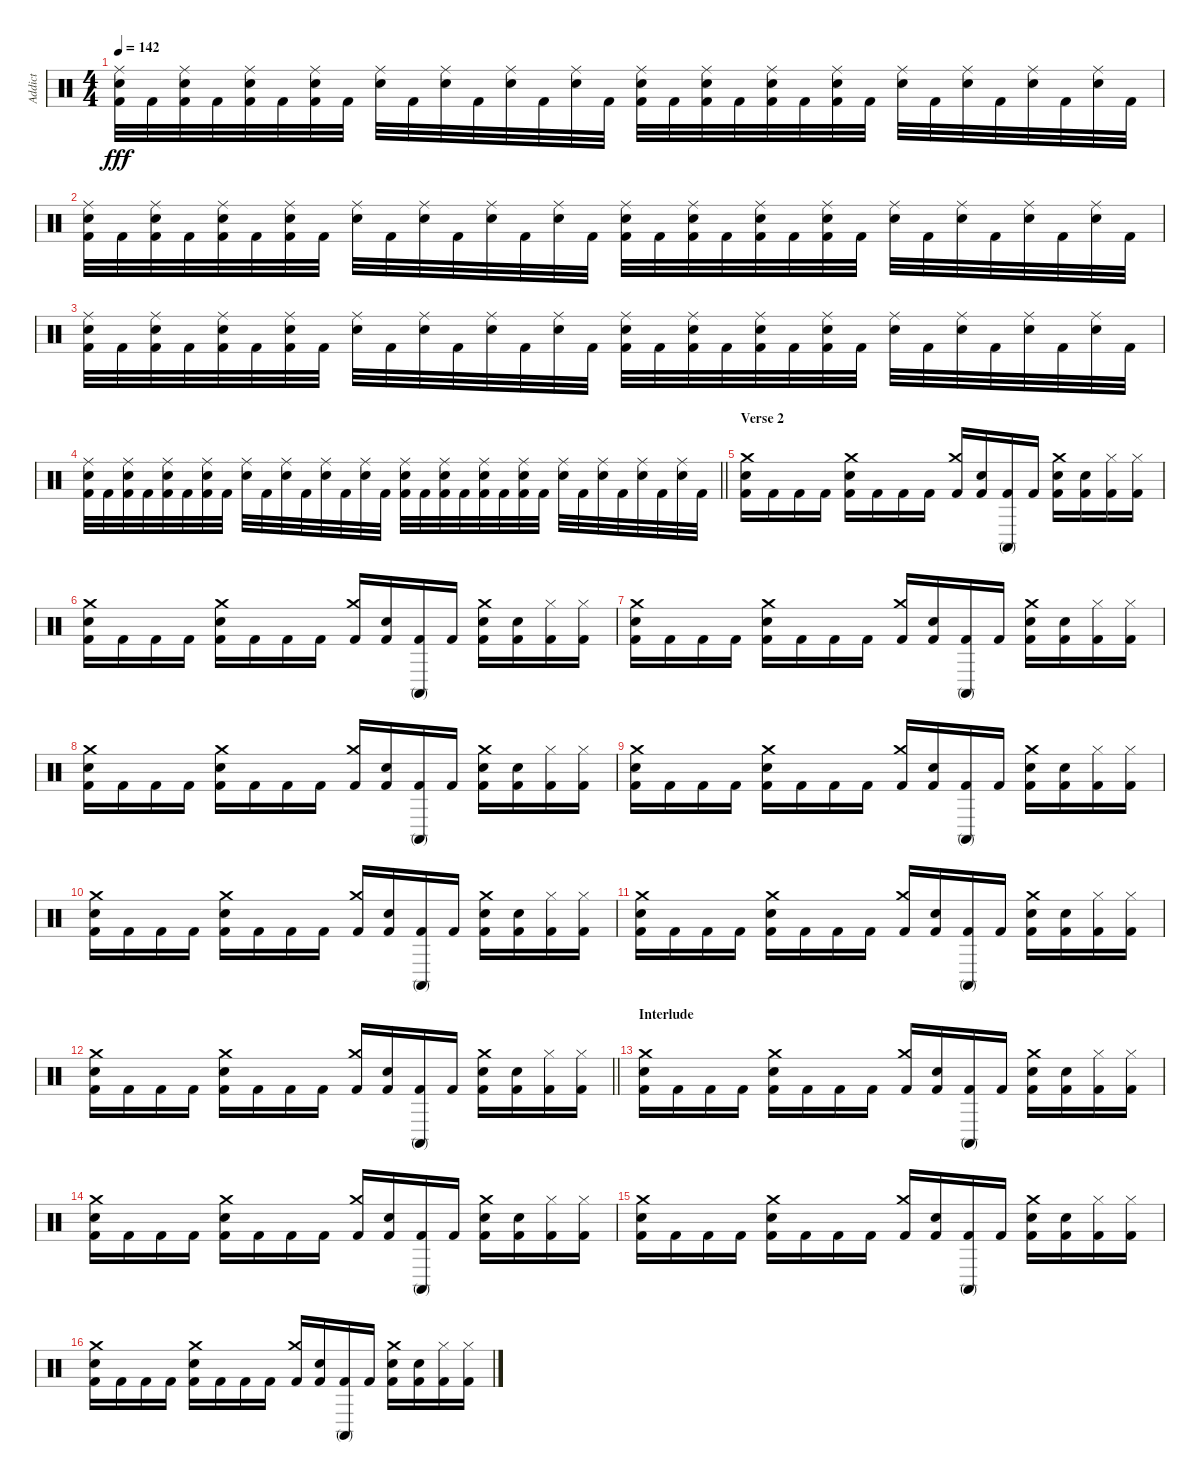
\track ("Addict" "Addict") {instrument percussion}
\staff {score}
\articulation defaults
\ts (4 4)
\tempo 142
\clef neutral
\ks c
("Kick (hit) 2" "Snare (hit) 2" "Ride (middle)").32{dy fff} "Kick (hit) 2".32 ("Kick (hit) 2" "Snare (hit) 2" "Ride (middle)").32 "Kick (hit) 2".32 ("Kick (hit) 2" "Snare (hit) 2" "Ride (middle)").32 "Kick (hit) 2".32 ("Kick (hit) 2" "Snare (hit) 2" "Ride (middle)").32 "Kick (hit) 2".32 ("Snare (hit) 2" "Ride (middle)").32 "Kick (hit) 2".32 ("Snare (hit) 2" "Ride (middle)").32 "Kick (hit) 2".32 ("Snare (hit) 2" "Ride (middle)").32 "Kick (hit) 2".32 ("Snare (hit) 2" "Ride (middle)").32 "Kick (hit) 2".32 ("Kick (hit) 2" "Snare (hit) 2" "Ride (middle)").32 "Kick (hit) 2".32 ("Kick (hit) 2" "Snare (hit) 2" "Ride (middle)").32 "Kick (hit) 2".32 ("Kick (hit) 2" "Snare (hit) 2" "Ride (middle)").32 "Kick (hit) 2".32 ("Kick (hit) 2" "Snare (hit) 2" "Ride (middle)").32 "Kick (hit) 2".32 ("Snare (hit) 2" "Ride (middle)").32 "Kick (hit) 2".32 ("Snare (hit) 2" "Ride (middle)").32 "Kick (hit) 2".32 ("Snare (hit) 2" "Ride (middle)").32 "Kick (hit) 2".32 ("Snare (hit) 2" "Ride (middle)").32 "Kick (hit) 2".32 |
("Kick (hit) 2" "Snare (hit) 2" "Ride (middle)").32 "Kick (hit) 2".32 ("Kick (hit) 2" "Snare (hit) 2" "Ride (middle)").32 "Kick (hit) 2".32 ("Kick (hit) 2" "Snare (hit) 2" "Ride (middle)").32 "Kick (hit) 2".32 ("Kick (hit) 2" "Snare (hit) 2" "Ride (middle)").32 "Kick (hit) 2".32 ("Snare (hit) 2" "Ride (middle)").32 "Kick (hit) 2".32 ("Snare (hit) 2" "Ride (middle)").32 "Kick (hit) 2".32 ("Snare (hit) 2" "Ride (middle)").32 "Kick (hit) 2".32 ("Snare (hit) 2" "Ride (middle)").32 "Kick (hit) 2".32 ("Kick (hit) 2" "Snare (hit) 2" "Ride (middle)").32 "Kick (hit) 2".32 ("Kick (hit) 2" "Snare (hit) 2" "Ride (middle)").32 "Kick (hit) 2".32 ("Kick (hit) 2" "Snare (hit) 2" "Ride (middle)").32 "Kick (hit) 2".32 ("Kick (hit) 2" "Snare (hit) 2" "Ride (middle)").32 "Kick (hit) 2".32 ("Snare (hit) 2" "Ride (middle)").32 "Kick (hit) 2".32 ("Snare (hit) 2" "Ride (middle)").32 "Kick (hit) 2".32 ("Snare (hit) 2" "Ride (middle)").32 "Kick (hit) 2".32 ("Snare (hit) 2" "Ride (middle)").32 "Kick (hit) 2".32 |
("Kick (hit) 2" "Snare (hit) 2" "Ride (middle)").32 "Kick (hit) 2".32 ("Kick (hit) 2" "Snare (hit) 2" "Ride (middle)").32 "Kick (hit) 2".32 ("Kick (hit) 2" "Snare (hit) 2" "Ride (middle)").32 "Kick (hit) 2".32 ("Kick (hit) 2" "Snare (hit) 2" "Ride (middle)").32 "Kick (hit) 2".32 ("Snare (hit) 2" "Ride (middle)").32 "Kick (hit) 2".32 ("Snare (hit) 2" "Ride (middle)").32 "Kick (hit) 2".32 ("Snare (hit) 2" "Ride (middle)").32 "Kick (hit) 2".32 ("Snare (hit) 2" "Ride (middle)").32 "Kick (hit) 2".32 ("Kick (hit) 2" "Snare (hit) 2" "Ride (middle)").32 "Kick (hit) 2".32 ("Kick (hit) 2" "Snare (hit) 2" "Ride (middle)").32 "Kick (hit) 2".32 ("Kick (hit) 2" "Snare (hit) 2" "Ride (middle)").32 "Kick (hit) 2".32 ("Kick (hit) 2" "Snare (hit) 2" "Ride (middle)").32 "Kick (hit) 2".32 ("Snare (hit) 2" "Ride (middle)").32 "Kick (hit) 2".32 ("Snare (hit) 2" "Ride (middle)").32 "Kick (hit) 2".32 ("Snare (hit) 2" "Ride (middle)").32 "Kick (hit) 2".32 ("Snare (hit) 2" "Ride (middle)").32 "Kick (hit) 2".32 |
\barLineRight lightlight
("Kick (hit) 2" "Snare (hit) 2" "Ride (middle)").32 "Kick (hit) 2".32 ("Kick (hit) 2" "Snare (hit) 2" "Ride (middle)").32 "Kick (hit) 2".32 ("Kick (hit) 2" "Snare (hit) 2" "Ride (middle)").32 "Kick (hit) 2".32 ("Kick (hit) 2" "Snare (hit) 2" "Ride (middle)").32 "Kick (hit) 2".32 ("Snare (hit) 2" "Ride (middle)").32 "Kick (hit) 2".32 ("Snare (hit) 2" "Ride (middle)").32 "Kick (hit) 2".32 ("Snare (hit) 2" "Ride (middle)").32 "Kick (hit) 2".32 ("Snare (hit) 2" "Ride (middle)").32 "Kick (hit) 2".32 ("Kick (hit) 2" "Snare (hit) 2" "Ride (middle)").32 "Kick (hit) 2".32 ("Kick (hit) 2" "Snare (hit) 2" "Ride (middle)").32 "Kick (hit) 2".32 ("Kick (hit) 2" "Snare (hit) 2" "Ride (middle)").32 "Kick (hit) 2".32 ("Kick (hit) 2" "Snare (hit) 2" "Ride (middle)").32 "Kick (hit) 2".32 ("Snare (hit) 2" "Ride (middle)").32 "Kick (hit) 2".32 ("Snare (hit) 2" "Ride (middle)").32 "Kick (hit) 2".32 ("Snare (hit) 2" "Ride (middle)").32 "Kick (hit) 2".32 ("Snare (hit) 2" "Ride (middle)").32 "Kick (hit) 2".32 |
\section ("" "Verse 2")
("Kick (hit) 2" "Snare (hit) 2" "Crash medium (hit)").16 "Kick (hit) 2".16 "Kick (hit) 2".16 "Kick (hit) 2".16 ("Kick (hit) 2" "Snare (hit) 2" "Crash medium (hit)").16 "Kick (hit) 2".16 "Kick (hit) 2".16 "Kick (hit) 2".16 ("Kick (hit) 2" "Crash medium (hit)").16 ("Kick (hit) 2" "Snare (hit) 2").16 ("Kick (hit) 2" "Conga high (mute)").16 "Kick (hit) 2".16 ("Kick (hit) 2" "Snare (hit) 2" "Crash medium (hit)").16 ("Kick (hit) 2" "Snare (hit) 2").16 ("Kick (hit) 2" "Hi-Hat (closed)").16 ("Kick (hit) 2" "Hi-Hat (closed)").16 |
("Kick (hit) 2" "Snare (hit) 2" "Crash medium (hit)").16 "Kick (hit) 2".16 "Kick (hit) 2".16 "Kick (hit) 2".16 ("Kick (hit) 2" "Snare (hit) 2" "Crash medium (hit)").16 "Kick (hit) 2".16 "Kick (hit) 2".16 "Kick (hit) 2".16 ("Kick (hit) 2" "Crash medium (hit)").16 ("Kick (hit) 2" "Snare (hit) 2").16 ("Kick (hit) 2" "Conga high (mute)").16 "Kick (hit) 2".16 ("Kick (hit) 2" "Snare (hit) 2" "Crash medium (hit)").16 ("Kick (hit) 2" "Snare (hit) 2").16 ("Kick (hit) 2" "Hi-Hat (closed)").16 ("Kick (hit) 2" "Hi-Hat (closed)").16 |
("Kick (hit) 2" "Snare (hit) 2" "Crash medium (hit)").16 "Kick (hit) 2".16 "Kick (hit) 2".16 "Kick (hit) 2".16 ("Kick (hit) 2" "Snare (hit) 2" "Crash medium (hit)").16 "Kick (hit) 2".16 "Kick (hit) 2".16 "Kick (hit) 2".16 ("Kick (hit) 2" "Crash medium (hit)").16 ("Kick (hit) 2" "Snare (hit) 2").16 ("Kick (hit) 2" "Conga high (mute)").16 "Kick (hit) 2".16 ("Kick (hit) 2" "Snare (hit) 2" "Crash medium (hit)").16 ("Kick (hit) 2" "Snare (hit) 2").16 ("Kick (hit) 2" "Hi-Hat (closed)").16 ("Kick (hit) 2" "Hi-Hat (closed)").16 |
("Kick (hit) 2" "Snare (hit) 2" "Crash medium (hit)").16 "Kick (hit) 2".16 "Kick (hit) 2".16 "Kick (hit) 2".16 ("Kick (hit) 2" "Snare (hit) 2" "Crash medium (hit)").16 "Kick (hit) 2".16 "Kick (hit) 2".16 "Kick (hit) 2".16 ("Kick (hit) 2" "Crash medium (hit)").16 ("Kick (hit) 2" "Snare (hit) 2").16 ("Kick (hit) 2" "Conga high (mute)").16 "Kick (hit) 2".16 ("Kick (hit) 2" "Snare (hit) 2" "Crash medium (hit)").16 ("Kick (hit) 2" "Snare (hit) 2").16 ("Kick (hit) 2" "Hi-Hat (closed)").16 ("Kick (hit) 2" "Hi-Hat (closed)").16 |
("Kick (hit) 2" "Snare (hit) 2" "Crash medium (hit)").16 "Kick (hit) 2".16 "Kick (hit) 2".16 "Kick (hit) 2".16 ("Kick (hit) 2" "Snare (hit) 2" "Crash medium (hit)").16 "Kick (hit) 2".16 "Kick (hit) 2".16 "Kick (hit) 2".16 ("Kick (hit) 2" "Crash medium (hit)").16 ("Kick (hit) 2" "Snare (hit) 2").16 ("Kick (hit) 2" "Conga high (mute)").16 "Kick (hit) 2".16 ("Kick (hit) 2" "Snare (hit) 2" "Crash medium (hit)").16 ("Kick (hit) 2" "Snare (hit) 2").16 ("Kick (hit) 2" "Hi-Hat (closed)").16 ("Kick (hit) 2" "Hi-Hat (closed)").16 |
("Kick (hit) 2" "Snare (hit) 2" "Crash medium (hit)").16 "Kick (hit) 2".16 "Kick (hit) 2".16 "Kick (hit) 2".16 ("Kick (hit) 2" "Snare (hit) 2" "Crash medium (hit)").16 "Kick (hit) 2".16 "Kick (hit) 2".16 "Kick (hit) 2".16 ("Kick (hit) 2" "Crash medium (hit)").16 ("Kick (hit) 2" "Snare (hit) 2").16 ("Kick (hit) 2" "Conga high (mute)").16 "Kick (hit) 2".16 ("Kick (hit) 2" "Snare (hit) 2" "Crash medium (hit)").16 ("Kick (hit) 2" "Snare (hit) 2").16 ("Kick (hit) 2" "Hi-Hat (closed)").16 ("Kick (hit) 2" "Hi-Hat (closed)").16 |
("Kick (hit) 2" "Snare (hit) 2" "Crash medium (hit)").16 "Kick (hit) 2".16 "Kick (hit) 2".16 "Kick (hit) 2".16 ("Kick (hit) 2" "Snare (hit) 2" "Crash medium (hit)").16 "Kick (hit) 2".16 "Kick (hit) 2".16 "Kick (hit) 2".16 ("Kick (hit) 2" "Crash medium (hit)").16 ("Kick (hit) 2" "Snare (hit) 2").16 ("Kick (hit) 2" "Conga high (mute)").16 "Kick (hit) 2".16 ("Kick (hit) 2" "Snare (hit) 2" "Crash medium (hit)").16 ("Kick (hit) 2" "Snare (hit) 2").16 ("Kick (hit) 2" "Hi-Hat (closed)").16 ("Kick (hit) 2" "Hi-Hat (closed)").16 |
\barLineRight lightlight
("Kick (hit) 2" "Snare (hit) 2" "Crash medium (hit)").16 "Kick (hit) 2".16 "Kick (hit) 2".16 "Kick (hit) 2".16 ("Kick (hit) 2" "Snare (hit) 2" "Crash medium (hit)").16 "Kick (hit) 2".16 "Kick (hit) 2".16 "Kick (hit) 2".16 ("Kick (hit) 2" "Crash medium (hit)").16 ("Kick (hit) 2" "Snare (hit) 2").16 ("Kick (hit) 2" "Conga high (mute)").16 "Kick (hit) 2".16 ("Kick (hit) 2" "Snare (hit) 2" "Crash medium (hit)").16 ("Kick (hit) 2" "Snare (hit) 2").16 ("Kick (hit) 2" "Hi-Hat (closed)").16 ("Kick (hit) 2" "Hi-Hat (closed)").16 |
\section ("" "Interlude")
("Kick (hit) 2" "Snare (hit) 2" "Crash medium (hit)").16 "Kick (hit) 2".16 "Kick (hit) 2".16 "Kick (hit) 2".16 ("Kick (hit) 2" "Snare (hit) 2" "Crash medium (hit)").16 "Kick (hit) 2".16 "Kick (hit) 2".16 "Kick (hit) 2".16 ("Kick (hit) 2" "Crash medium (hit)").16 ("Kick (hit) 2" "Snare (hit) 2").16 ("Kick (hit) 2" "Conga high (mute)").16 "Kick (hit) 2".16 ("Kick (hit) 2" "Snare (hit) 2" "Crash medium (hit)").16 ("Kick (hit) 2" "Snare (hit) 2").16 ("Kick (hit) 2" "Hi-Hat (closed)").16 ("Kick (hit) 2" "Hi-Hat (closed)").16 |
("Kick (hit) 2" "Snare (hit) 2" "Crash medium (hit)").16 "Kick (hit) 2".16 "Kick (hit) 2".16 "Kick (hit) 2".16 ("Kick (hit) 2" "Snare (hit) 2" "Crash medium (hit)").16 "Kick (hit) 2".16 "Kick (hit) 2".16 "Kick (hit) 2".16 ("Kick (hit) 2" "Crash medium (hit)").16 ("Kick (hit) 2" "Snare (hit) 2").16 ("Kick (hit) 2" "Conga high (mute)").16 "Kick (hit) 2".16 ("Kick (hit) 2" "Snare (hit) 2" "Crash medium (hit)").16 ("Kick (hit) 2" "Snare (hit) 2").16 ("Kick (hit) 2" "Hi-Hat (closed)").16 ("Kick (hit) 2" "Hi-Hat (closed)").16 |
("Kick (hit) 2" "Snare (hit) 2" "Crash medium (hit)").16 "Kick (hit) 2".16 "Kick (hit) 2".16 "Kick (hit) 2".16 ("Kick (hit) 2" "Snare (hit) 2" "Crash medium (hit)").16 "Kick (hit) 2".16 "Kick (hit) 2".16 "Kick (hit) 2".16 ("Kick (hit) 2" "Crash medium (hit)").16 ("Kick (hit) 2" "Snare (hit) 2").16 ("Kick (hit) 2" "Conga high (mute)").16 "Kick (hit) 2".16 ("Kick (hit) 2" "Snare (hit) 2" "Crash medium (hit)").16 ("Kick (hit) 2" "Snare (hit) 2").16 ("Kick (hit) 2" "Hi-Hat (closed)").16 ("Kick (hit) 2" "Hi-Hat (closed)").16 |
("Kick (hit) 2" "Snare (hit) 2" "Crash medium (hit)").16 "Kick (hit) 2".16 "Kick (hit) 2".16 "Kick (hit) 2".16 ("Kick (hit) 2" "Snare (hit) 2" "Crash medium (hit)").16 "Kick (hit) 2".16 "Kick (hit) 2".16 "Kick (hit) 2".16 ("Kick (hit) 2" "Crash medium (hit)").16 ("Kick (hit) 2" "Snare (hit) 2").16 ("Kick (hit) 2" "Conga high (mute)").16 "Kick (hit) 2".16 ("Kick (hit) 2" "Snare (hit) 2" "Crash medium (hit)").16 ("Kick (hit) 2" "Snare (hit) 2").16 ("Kick (hit) 2" "Hi-Hat (closed)").16 ("Kick (hit) 2" "Hi-Hat (closed)").16
